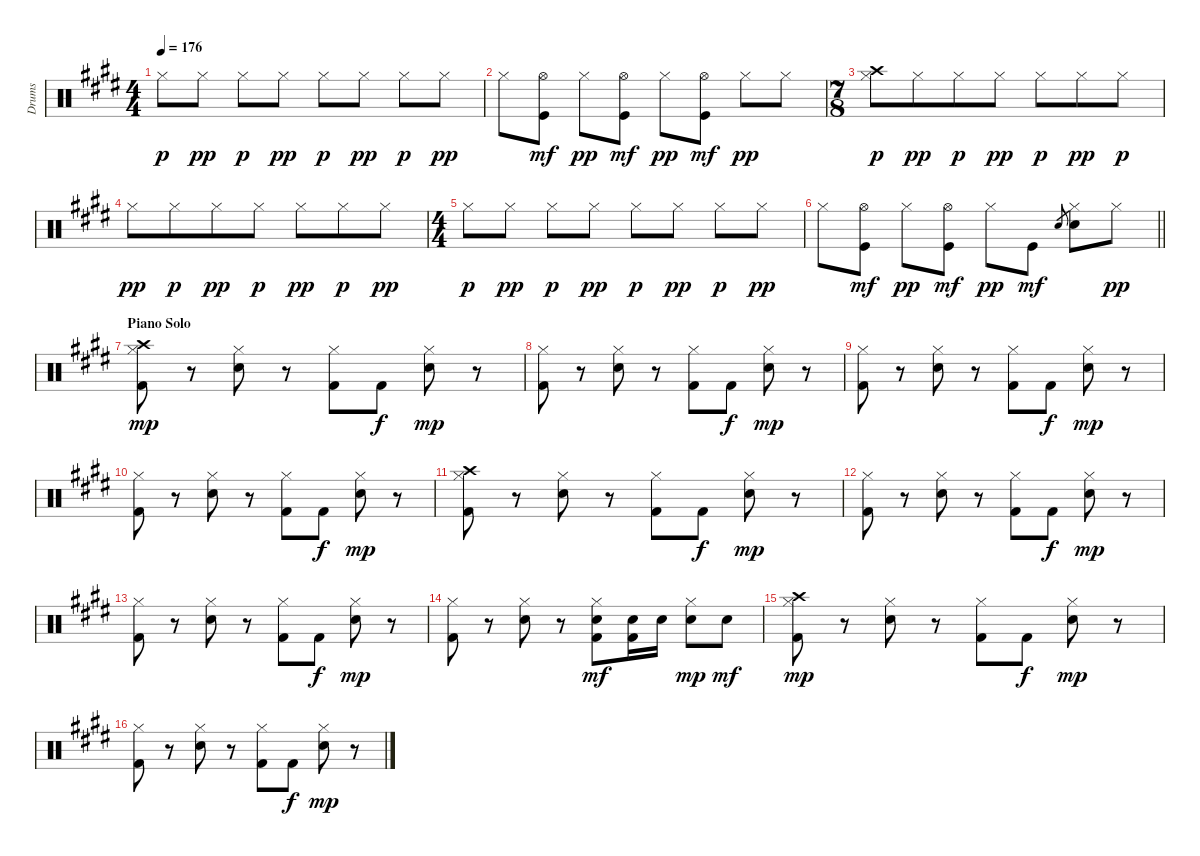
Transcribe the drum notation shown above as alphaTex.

\track ("Drums" "Drums") {instrument percussion}
\staff {score}
\articulation defaults
\ts (4 4)
\tempo 176
\clef neutral
\ks e "Hi-Hat (closed)".8{dy p} "Hi-Hat (closed)".8{dy pp} "Hi-Hat (closed)".8{dy p} "Hi-Hat (closed)".8{dy pp} "Hi-Hat (closed)".8{dy p} "Hi-Hat (closed)".8{dy pp} "Hi-Hat (closed)".8{dy p} "Hi-Hat (closed)".8{dy pp}
|
"Hi-Hat (closed)".8 ("Hi-Hat (open)" "Kick (hit)").8{dy mf} "Hi-Hat (closed)".8{dy pp} ("Hi-Hat (open)" "Kick (hit)").8{dy mf} "Hi-Hat (closed)".8{dy pp} ("Hi-Hat (open)" "Kick (hit)").8{dy mf} "Hi-Hat (closed)".8{dy pp} "Hi-Hat (closed)".8 |
\ts (7 8)
("Crash high (hit)" "Hi-Hat (closed)").8{dy p} "Hi-Hat (closed)".8{dy pp} "Hi-Hat (closed)".8{dy p} "Hi-Hat (closed)".8{dy pp} "Hi-Hat (closed)".8{dy p} "Hi-Hat (closed)".8{dy pp} "Hi-Hat (closed)".8{dy p} |
"Hi-Hat (closed)".8{dy pp} "Hi-Hat (closed)".8{dy p} "Hi-Hat (closed)".8{dy pp} "Hi-Hat (closed)".8{dy p} "Hi-Hat (closed)".8{dy pp} "Hi-Hat (closed)".8{dy p} "Hi-Hat (closed)".8{dy pp} |
\ts (4 4)
"Hi-Hat (closed)".8{dy p} "Hi-Hat (closed)".8{dy pp} "Hi-Hat (closed)".8{dy p} "Hi-Hat (closed)".8{dy pp} "Hi-Hat (closed)".8{dy p} "Hi-Hat (closed)".8{dy pp} "Hi-Hat (closed)".8{dy p} "Hi-Hat (closed)".8{dy pp} |
\barLineRight lightlight "Hi-Hat (closed)".8
("Hi-Hat (open)" "Kick (hit)").8{dy mf} "Hi-Hat (closed)".8{dy pp} ("Hi-Hat (open)" "Kick (hit)").8{dy mf} "Hi-Hat (closed)".8{dy pp} "Kick (hit)".8{dy mf} "Snare (hit) 2".8{gr} ("Hi-Hat (closed)" "Snare (hit) 2").8 "Hi-Hat (closed)".8{dy pp} |
\section ("" "Piano Solo")
("Crash high (hit)" "Hi-Hat (closed)" "Kick (hit) 2").8{dy mp} r.8 ("Hi-Hat (closed)" "Snare (hit) 2").8 r.8 ("Hi-Hat (closed)" "Kick (hit) 2").8 "Kick (hit) 2".8{dy f} ("Hi-Hat (closed)" "Snare (hit) 2").8{dy mp} r.8 |
("Hi-Hat (closed)" "Kick (hit) 2").8 r.8 ("Hi-Hat (closed)" "Snare (hit) 2").8 r.8 ("Hi-Hat (closed)" "Kick (hit) 2").8 "Kick (hit) 2".8{dy f} ("Hi-Hat (closed)" "Snare (hit) 2").8{dy mp} r.8 |
("Hi-Hat (closed)" "Kick (hit) 2").8 r.8 ("Hi-Hat (closed)" "Snare (hit) 2").8 r.8 ("Hi-Hat (closed)" "Kick (hit) 2").8 "Kick (hit) 2".8{dy f} ("Hi-Hat (closed)" "Snare (hit) 2").8{dy mp} r.8 |
("Hi-Hat (closed)" "Kick (hit) 2").8 r.8 ("Hi-Hat (closed)" "Snare (hit) 2").8 r.8 ("Hi-Hat (closed)" "Kick (hit) 2").8 "Kick (hit) 2".8{dy f} ("Hi-Hat (closed)" "Snare (hit) 2").8{dy mp} r.8 |
("Crash high (hit)" "Hi-Hat (closed)" "Kick (hit) 2").8 r.8 ("Hi-Hat (closed)" "Snare (hit) 2").8 r.8 ("Hi-Hat (closed)" "Kick (hit) 2").8 "Kick (hit) 2".8{dy f} ("Hi-Hat (closed)" "Snare (hit) 2").8{dy mp} r.8 |
("Hi-Hat (closed)" "Kick (hit) 2").8 r.8 ("Hi-Hat (closed)" "Snare (hit) 2").8 r.8 ("Hi-Hat (closed)" "Kick (hit) 2").8 "Kick (hit) 2".8{dy f} ("Hi-Hat (closed)" "Snare (hit) 2").8{dy mp} r.8 |
("Hi-Hat (closed)" "Kick (hit) 2").8 r.8 ("Hi-Hat (closed)" "Snare (hit) 2").8 r.8 ("Hi-Hat (closed)" "Kick (hit) 2").8 "Kick (hit) 2".8{dy f} ("Hi-Hat (closed)" "Snare (hit) 2").8{dy mp} r.8 |
("Hi-Hat (closed)" "Kick (hit) 2").8 r.8 ("Hi-Hat (closed)" "Snare (hit) 2").8 r.8 ("Hi-Hat (closed)" "Snare (hit) 2" "Kick (hit) 2").8{dy mf} ("Snare (hit) 2" "Kick (hit) 2").16 "Snare (hit) 2".16 ("Hi-Hat (closed)" "Snare (hit) 2").8{dy mp} "Snare (hit) 2".8{dy mf} |
("Crash high (hit)" "Hi-Hat (closed)" "Kick (hit) 2").8{dy mp} r.8 ("Hi-Hat (closed)" "Snare (hit) 2").8 r.8 ("Hi-Hat (closed)" "Kick (hit) 2").8 "Kick (hit) 2".8{dy f} ("Hi-Hat (closed)" "Snare (hit) 2").8{dy mp} r.8 |
("Hi-Hat (closed)" "Kick (hit) 2").8 r.8 ("Hi-Hat (closed)" "Snare (hit) 2").8 r.8 ("Hi-Hat (closed)" "Kick (hit) 2").8 "Kick (hit) 2".8{dy f} ("Hi-Hat (closed)" "Snare (hit) 2").8{dy mp} r.8
